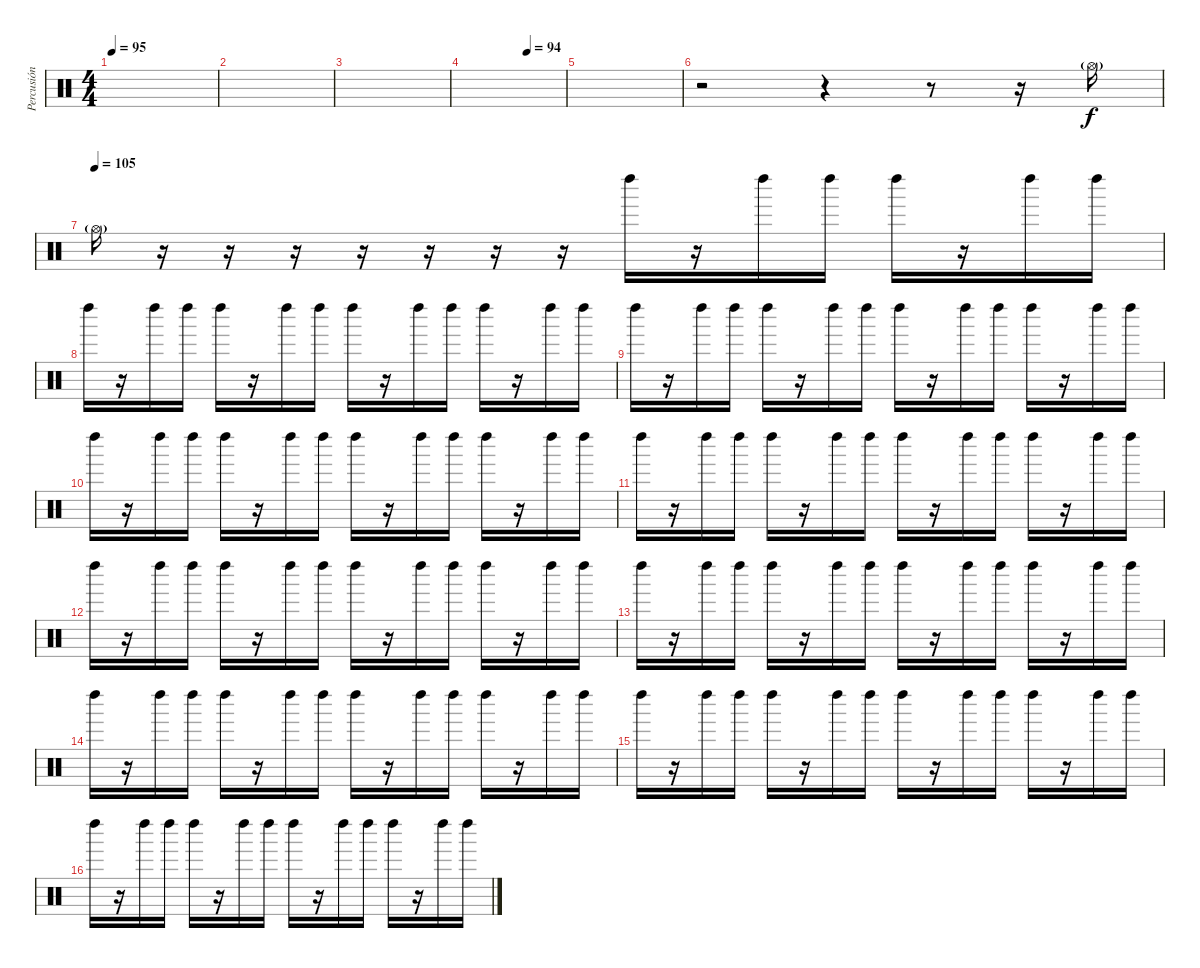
\track ("Percusión" "Percusión") {instrument percussion}
\staff {score}
\articulation defaults
\ts (4 4)
\tempo 95
\clef neutral
\ks c
|
|
|
\tempo (94 0.625)
|
|
r.2 r.4 r.8 r.16 "Hi-Hat (open)"{g}.16 |
\tempo (105)
"Hi-Hat (open)"{g}.16 r.16 r.16 r.16 r.16 r.16 r.16 r.16 "Left Maraca (hit)".16{dy f} r.16 "Left Maraca (hit)".16 "Left Maraca (hit)".16 "Left Maraca (hit)".16 r.16 "Left Maraca (hit)".16 "Left Maraca (hit)".16 |
"Left Maraca (hit)".16 r.16 "Left Maraca (hit)".16 "Left Maraca (hit)".16 "Left Maraca (hit)".16 r.16 "Left Maraca (hit)".16 "Left Maraca (hit)".16 "Left Maraca (hit)".16 r.16 "Left Maraca (hit)".16 "Left Maraca (hit)".16 "Left Maraca (hit)".16 r.16 "Left Maraca (hit)".16 "Left Maraca (hit)".16 |
"Left Maraca (hit)".16 r.16 "Left Maraca (hit)".16 "Left Maraca (hit)".16 "Left Maraca (hit)".16 r.16 "Left Maraca (hit)".16 "Left Maraca (hit)".16 "Left Maraca (hit)".16 r.16 "Left Maraca (hit)".16 "Left Maraca (hit)".16 "Left Maraca (hit)".16 r.16 "Left Maraca (hit)".16 "Left Maraca (hit)".16 |
"Left Maraca (hit)".16 r.16 "Left Maraca (hit)".16 "Left Maraca (hit)".16 "Left Maraca (hit)".16 r.16 "Left Maraca (hit)".16 "Left Maraca (hit)".16 "Left Maraca (hit)".16 r.16 "Left Maraca (hit)".16 "Left Maraca (hit)".16 "Left Maraca (hit)".16 r.16 "Left Maraca (hit)".16 "Left Maraca (hit)".16 |
"Left Maraca (hit)".16 r.16 "Left Maraca (hit)".16 "Left Maraca (hit)".16 "Left Maraca (hit)".16 r.16 "Left Maraca (hit)".16 "Left Maraca (hit)".16 "Left Maraca (hit)".16 r.16 "Left Maraca (hit)".16 "Left Maraca (hit)".16 "Left Maraca (hit)".16 r.16 "Left Maraca (hit)".16 "Left Maraca (hit)".16 |
"Left Maraca (hit)".16 r.16 "Left Maraca (hit)".16 "Left Maraca (hit)".16 "Left Maraca (hit)".16 r.16 "Left Maraca (hit)".16 "Left Maraca (hit)".16 "Left Maraca (hit)".16 r.16 "Left Maraca (hit)".16 "Left Maraca (hit)".16 "Left Maraca (hit)".16 r.16 "Left Maraca (hit)".16 "Left Maraca (hit)".16 |
"Left Maraca (hit)".16 r.16 "Left Maraca (hit)".16 "Left Maraca (hit)".16 "Left Maraca (hit)".16 r.16 "Left Maraca (hit)".16 "Left Maraca (hit)".16 "Left Maraca (hit)".16 r.16 "Left Maraca (hit)".16 "Left Maraca (hit)".16 "Left Maraca (hit)".16 r.16 "Left Maraca (hit)".16 "Left Maraca (hit)".16 |
"Left Maraca (hit)".16 r.16 "Left Maraca (hit)".16 "Left Maraca (hit)".16 "Left Maraca (hit)".16 r.16 "Left Maraca (hit)".16 "Left Maraca (hit)".16 "Left Maraca (hit)".16 r.16 "Left Maraca (hit)".16 "Left Maraca (hit)".16 "Left Maraca (hit)".16 r.16 "Left Maraca (hit)".16 "Left Maraca (hit)".16 |
"Left Maraca (hit)".16 r.16 "Left Maraca (hit)".16 "Left Maraca (hit)".16 "Left Maraca (hit)".16 r.16 "Left Maraca (hit)".16 "Left Maraca (hit)".16 "Left Maraca (hit)".16 r.16 "Left Maraca (hit)".16 "Left Maraca (hit)".16 "Left Maraca (hit)".16 r.16 "Left Maraca (hit)".16 "Left Maraca (hit)".16 |
"Left Maraca (hit)".16 r.16 "Left Maraca (hit)".16 "Left Maraca (hit)".16 "Left Maraca (hit)".16 r.16 "Left Maraca (hit)".16 "Left Maraca (hit)".16 "Left Maraca (hit)".16 r.16 "Left Maraca (hit)".16 "Left Maraca (hit)".16 "Left Maraca (hit)".16 r.16 "Left Maraca (hit)".16 "Left Maraca (hit)".16
